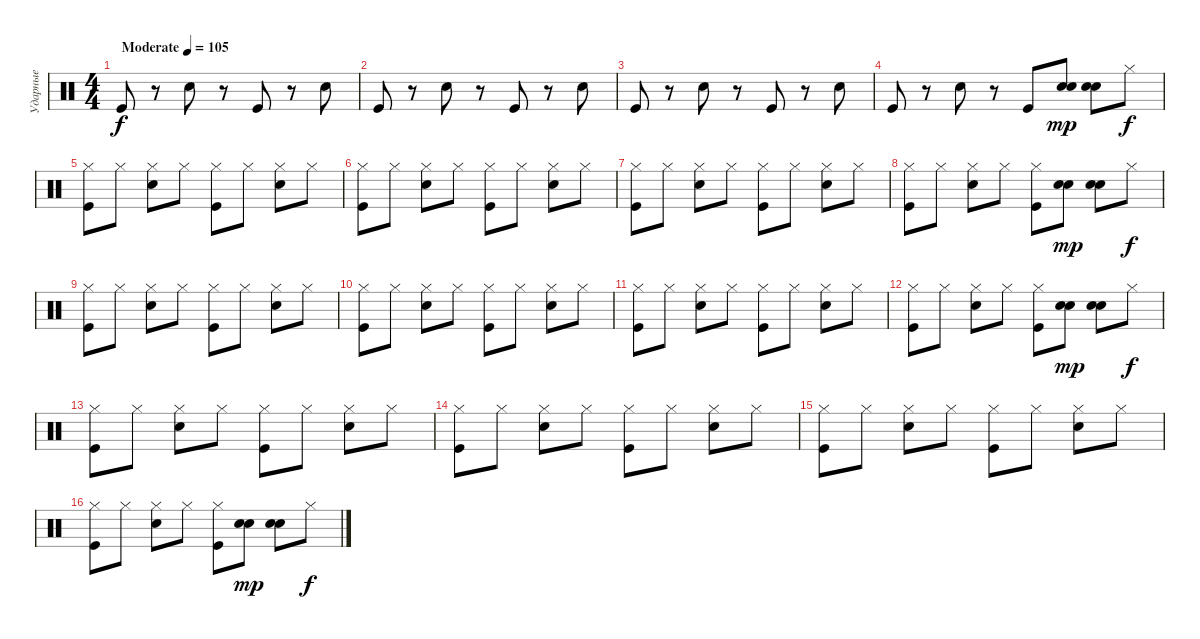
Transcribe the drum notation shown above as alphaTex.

\track ("Ударные" "Ударные") {instrument percussion}
\staff {score}
\articulation defaults
\ts (4 4)
\tempo (105 "Moderate")
\clef neutral
\ks c "Kick (hit)".8{dy f}
r.8 "Snare (hit) 2".8 r.8 "Kick (hit)".8 r.8 "Snare (hit) 2".8 |
"Kick (hit)".8 r.8 "Snare (hit) 2".8 r.8 "Kick (hit)".8 r.8 "Snare (hit) 2".8 |
"Kick (hit)".8 r.8 "Snare (hit) 2".8 r.8 "Kick (hit)".8 r.8 "Snare (hit) 2".8 |
"Kick (hit)".8 r.8 "Snare (hit) 2".8 r.8 "Kick (hit)".8 ("Hand Clap (hit)" "Snare (hit) 2").8{dy mp} ("Hand Clap (hit)" "Snare (hit) 2").8 "Hi-Hat (closed)".8{dy f} |
("Hi-Hat (closed)" "Kick (hit)").8 "Hi-Hat (closed)".8 ("Hi-Hat (closed)" "Snare (hit) 2").8 "Hi-Hat (closed)".8 ("Hi-Hat (closed)" "Kick (hit)").8 "Hi-Hat (closed)".8 ("Hi-Hat (closed)" "Snare (hit) 2").8 "Hi-Hat (closed)".8 |
("Hi-Hat (closed)" "Kick (hit)").8 "Hi-Hat (closed)".8 ("Hi-Hat (closed)" "Snare (hit) 2").8 "Hi-Hat (closed)".8 ("Hi-Hat (closed)" "Kick (hit)").8 "Hi-Hat (closed)".8 ("Hi-Hat (closed)" "Snare (hit) 2").8 "Hi-Hat (closed)".8 |
("Hi-Hat (closed)" "Kick (hit)").8 "Hi-Hat (closed)".8 ("Hi-Hat (closed)" "Snare (hit) 2").8 "Hi-Hat (closed)".8 ("Hi-Hat (closed)" "Kick (hit)").8 "Hi-Hat (closed)".8 ("Hi-Hat (closed)" "Snare (hit) 2").8 "Hi-Hat (closed)".8 |
("Hi-Hat (closed)" "Kick (hit)").8 "Hi-Hat (closed)".8 ("Hi-Hat (closed)" "Snare (hit) 2").8 "Hi-Hat (closed)".8 ("Hi-Hat (closed)" "Kick (hit)").8 ("Hand Clap (hit)" "Snare (hit) 2").8{dy mp} ("Hand Clap (hit)" "Snare (hit) 2").8 "Hi-Hat (closed)".8{dy f} |
("Hi-Hat (closed)" "Kick (hit)").8 "Hi-Hat (closed)".8 ("Hi-Hat (closed)" "Snare (hit) 2").8 "Hi-Hat (closed)".8 ("Hi-Hat (closed)" "Kick (hit)").8 "Hi-Hat (closed)".8 ("Hi-Hat (closed)" "Snare (hit) 2").8 "Hi-Hat (closed)".8 |
("Hi-Hat (closed)" "Kick (hit)").8 "Hi-Hat (closed)".8 ("Hi-Hat (closed)" "Snare (hit) 2").8 "Hi-Hat (closed)".8 ("Hi-Hat (closed)" "Kick (hit)").8 "Hi-Hat (closed)".8 ("Hi-Hat (closed)" "Snare (hit) 2").8 "Hi-Hat (closed)".8 |
("Hi-Hat (closed)" "Kick (hit)").8 "Hi-Hat (closed)".8 ("Hi-Hat (closed)" "Snare (hit) 2").8 "Hi-Hat (closed)".8 ("Hi-Hat (closed)" "Kick (hit)").8 "Hi-Hat (closed)".8 ("Hi-Hat (closed)" "Snare (hit) 2").8 "Hi-Hat (closed)".8 |
("Hi-Hat (closed)" "Kick (hit)").8 "Hi-Hat (closed)".8 ("Hi-Hat (closed)" "Snare (hit) 2").8 "Hi-Hat (closed)".8 ("Hi-Hat (closed)" "Kick (hit)").8 ("Hand Clap (hit)" "Snare (hit) 2").8{dy mp} ("Hand Clap (hit)" "Snare (hit) 2").8 "Hi-Hat (closed)".8{dy f} |
("Hi-Hat (closed)" "Kick (hit)").8 "Hi-Hat (closed)".8 ("Hi-Hat (closed)" "Snare (hit) 2").8 "Hi-Hat (closed)".8 ("Hi-Hat (closed)" "Kick (hit)").8 "Hi-Hat (closed)".8 ("Hi-Hat (closed)" "Snare (hit) 2").8 "Hi-Hat (closed)".8 |
("Hi-Hat (closed)" "Kick (hit)").8 "Hi-Hat (closed)".8 ("Hi-Hat (closed)" "Snare (hit) 2").8 "Hi-Hat (closed)".8 ("Hi-Hat (closed)" "Kick (hit)").8 "Hi-Hat (closed)".8 ("Hi-Hat (closed)" "Snare (hit) 2").8 "Hi-Hat (closed)".8 |
("Hi-Hat (closed)" "Kick (hit)").8 "Hi-Hat (closed)".8 ("Hi-Hat (closed)" "Snare (hit) 2").8 "Hi-Hat (closed)".8 ("Hi-Hat (closed)" "Kick (hit)").8 "Hi-Hat (closed)".8 ("Hi-Hat (closed)" "Snare (hit) 2").8 "Hi-Hat (closed)".8 |
("Hi-Hat (closed)" "Kick (hit)").8 "Hi-Hat (closed)".8 ("Hi-Hat (closed)" "Snare (hit) 2").8 "Hi-Hat (closed)".8 ("Hi-Hat (closed)" "Kick (hit)").8 ("Hand Clap (hit)" "Snare (hit) 2").8{dy mp} ("Hand Clap (hit)" "Snare (hit) 2").8 "Hi-Hat (closed)".8{dy f}
